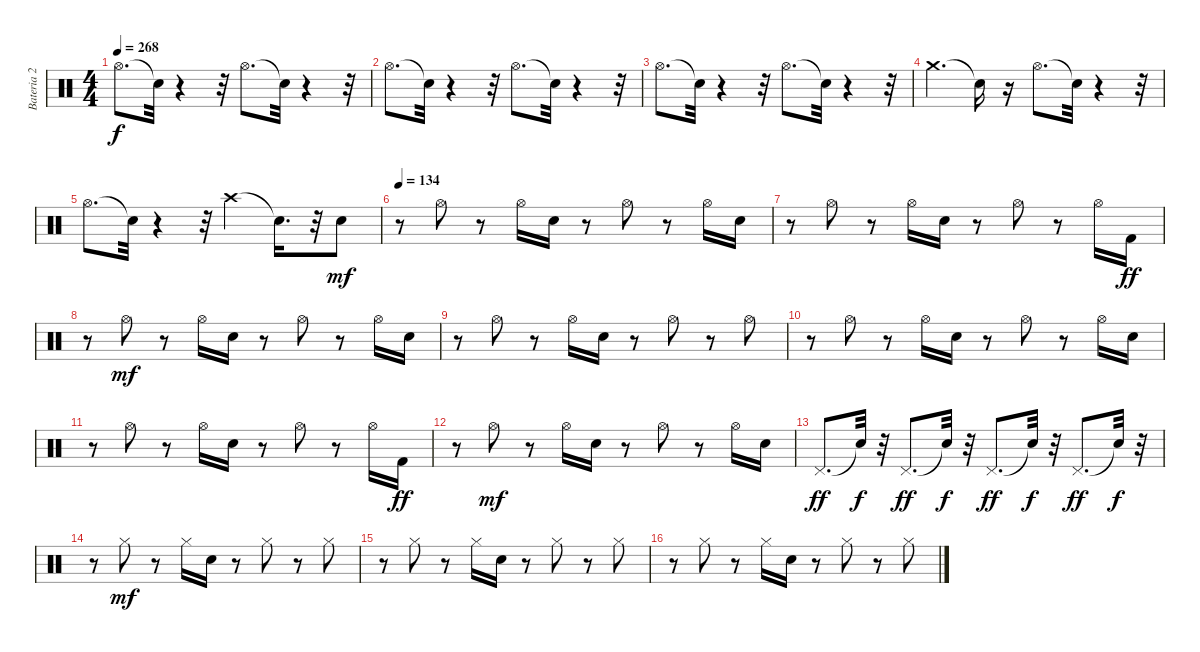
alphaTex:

\track ("Bateria 2" "Bateria 2") {instrument percussion}
\staff {score}
\articulation defaults
\ts (4 4)
\tempo 268
\clef neutral
\ks c "Hi-Hat (open)".8{d dy f} "Snare (hit)"{t}.32
r.4 r.32 "Hi-Hat (open)".8{d} "Snare (hit)"{t}.32 r.4 r.32 |
"Hi-Hat (open)".8{d} "Snare (hit)"{t}.32 r.4 r.32 "Hi-Hat (open)".8{d} "Snare (hit)"{t}.32 r.4 r.32 |
"Hi-Hat (open)".8{d} "Snare (hit)"{t}.32 r.4 r.32 "Hi-Hat (open)".8{d} "Snare (hit)"{t}.32 r.4 r.32 |
"Crash medium (hit)".4{d} "Snare (hit)"{t}.16 r.16 "Hi-Hat (open)".8{d} "Snare (hit)"{t}.32 r.4 r.32 |
"Hi-Hat (open)".8{d} "Snare (hit)"{t}.32 r.4 r.32 "Crash high (hit)".4 "Snare (hit)"{t}.16{d} r.32 "Electric Snare (hit)".8{dy mf} |
\tempo 134
r.8 "Hi-Hat (open)".8 r.8 "Hi-Hat (open)".16 "Electric Snare (hit)".16 r.8 "Hi-Hat (open)".8 r.8 "Hi-Hat (open)".16 "Electric Snare (hit)".16 |
r.8 "Hi-Hat (open)".8 r.8 "Hi-Hat (open)".16 "Electric Snare (hit)".16 r.8 "Hi-Hat (open)".8 r.8 "Hi-Hat (open)".16 "Kick (hit) 2".16{dy ff} |
r.8 "Hi-Hat (open)".8{dy mf} r.8 "Hi-Hat (open)".16 "Electric Snare (hit)".16 r.8 "Hi-Hat (open)".8 r.8 "Hi-Hat (open)".16 "Electric Snare (hit)".16 |
r.8 "Hi-Hat (open)".8 r.8 "Hi-Hat (open)".16 "Electric Snare (hit)".16 r.8 "Hi-Hat (open)".8 r.8 "Hi-Hat (open)".8 |
r.8 "Hi-Hat (open)".8 r.8 "Hi-Hat (open)".16 "Electric Snare (hit)".16 r.8 "Hi-Hat (open)".8 r.8 "Hi-Hat (open)".16 "Electric Snare (hit)".16 |
r.8 "Hi-Hat (open)".8 r.8 "Hi-Hat (open)".16 "Electric Snare (hit)".16 r.8 "Hi-Hat (open)".8 r.8 "Hi-Hat (open)".16 "Kick (hit) 2".16{dy ff} |
r.8 "Hi-Hat (open)".8{dy mf} r.8 "Hi-Hat (open)".16 "Electric Snare (hit)".16 r.8 "Hi-Hat (open)".8 r.8 "Hi-Hat (open)".16 "Electric Snare (hit)".16 |
"Pedal Hi-Hat (hit)".8{d dy ff} "Snare (hit)"{t}.32{dy f} r.32 "Pedal Hi-Hat (hit)".8{d dy ff} "Snare (hit)"{t}.32{dy f} r.32 "Pedal Hi-Hat (hit)".8{d dy ff} "Snare (hit)"{t}.32{dy f} r.32 "Pedal Hi-Hat (hit)".8{d dy ff} "Snare (hit)"{t}.32{dy f} r.32 |
r.8 "Hi-Hat (closed)".8{dy mf} r.8 "Hi-Hat (closed)".16 "Electric Snare (hit)".16 r.8 "Hi-Hat (closed)".8 r.8 "Hi-Hat (closed)".8 |
r.8 "Hi-Hat (closed)".8 r.8 "Hi-Hat (closed)".16 "Electric Snare (hit)".16 r.8 "Hi-Hat (closed)".8 r.8 "Hi-Hat (closed)".8 |
r.8 "Hi-Hat (closed)".8 r.8 "Hi-Hat (closed)".16 "Electric Snare (hit)".16 r.8 "Hi-Hat (closed)".8 r.8 "Hi-Hat (closed)".8
